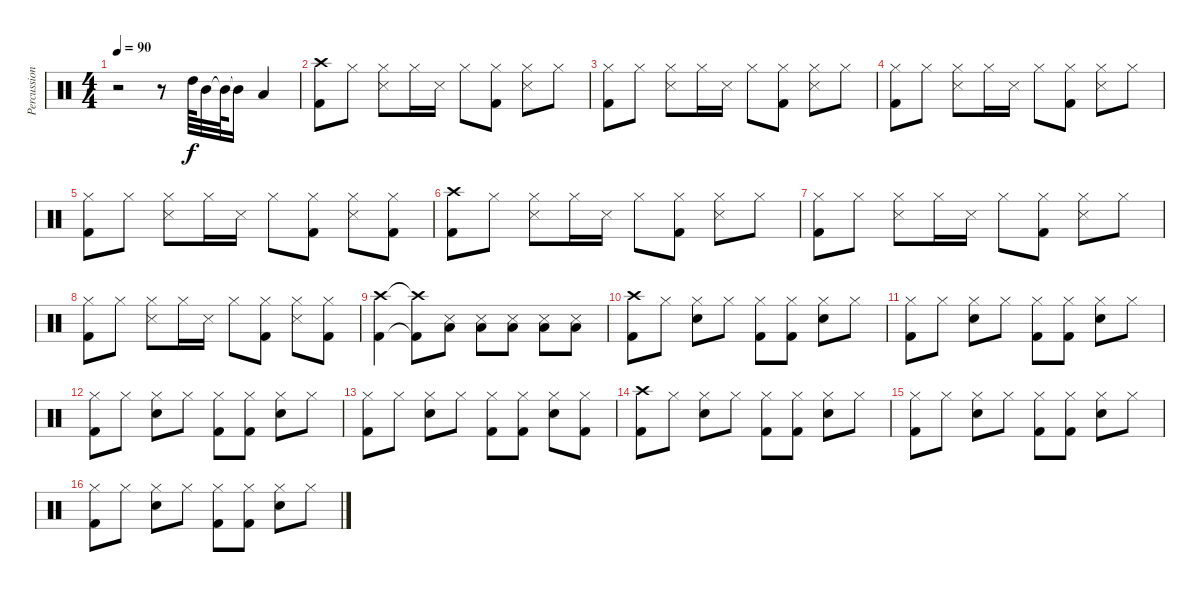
\track ("Percussion" "Percussion") {instrument percussion}
\staff {score}
\articulation defaults
\ts (4 4)
\tempo 90
\clef neutral
\ks c
r.2{dy f} r.8 "High Tom (hit)".64 "Mid Tom (hit)".32 "Mid Tom (hit)"{t}.64 "Mid Tom (hit)"{t}.16 "Low Floor Tom (hit)".4 |
("Crash high (hit)" "Kick (hit) 2").8 "Hi-Hat (closed)".8 ("Hi-Hat (closed)" "Snare (side stick) 3").8 "Hi-Hat (closed)".16 "Snare (side stick) 3".16 "Hi-Hat (closed)".8 ("Hi-Hat (closed)" "Kick (hit) 2").8 ("Hi-Hat (closed)" "Snare (side stick) 3").8 "Hi-Hat (closed)".8 |
("Hi-Hat (closed)" "Kick (hit) 2").8 "Hi-Hat (closed)".8 ("Hi-Hat (closed)" "Snare (side stick) 3").8 "Hi-Hat (closed)".16 "Snare (side stick) 3".16 "Hi-Hat (closed)".8 ("Hi-Hat (closed)" "Kick (hit) 2").8 ("Hi-Hat (closed)" "Snare (side stick) 3").8 "Hi-Hat (closed)".8 |
("Hi-Hat (closed)" "Kick (hit) 2").8 "Hi-Hat (closed)".8 ("Hi-Hat (closed)" "Snare (side stick) 3").8 "Hi-Hat (closed)".16 "Snare (side stick) 3".16 "Hi-Hat (closed)".8 ("Hi-Hat (closed)" "Kick (hit) 2").8 ("Hi-Hat (closed)" "Snare (side stick) 3").8 "Hi-Hat (closed)".8 |
("Hi-Hat (closed)" "Kick (hit) 2").8 "Hi-Hat (closed)".8 ("Hi-Hat (closed)" "Snare (side stick) 3").8 "Hi-Hat (closed)".16 "Snare (side stick) 3".16 "Hi-Hat (closed)".8 ("Hi-Hat (closed)" "Kick (hit) 2").8 ("Hi-Hat (closed)" "Snare (side stick) 3").8 ("Hi-Hat (closed)" "Kick (hit) 2").8 |
("Crash high (hit)" "Kick (hit) 2").8 "Hi-Hat (closed)".8 ("Hi-Hat (closed)" "Snare (side stick) 3").8 "Hi-Hat (closed)".16 "Snare (side stick) 3".16 "Hi-Hat (closed)".8 ("Hi-Hat (closed)" "Kick (hit) 2").8 ("Hi-Hat (closed)" "Snare (side stick) 3").8 "Hi-Hat (closed)".8 |
("Hi-Hat (closed)" "Kick (hit) 2").8 "Hi-Hat (closed)".8 ("Hi-Hat (closed)" "Snare (side stick) 3").8 "Hi-Hat (closed)".16 "Snare (side stick) 3".16 "Hi-Hat (closed)".8 ("Hi-Hat (closed)" "Kick (hit) 2").8 ("Hi-Hat (closed)" "Snare (side stick) 3").8 "Hi-Hat (closed)".8 |
("Hi-Hat (closed)" "Kick (hit) 2").8 "Hi-Hat (closed)".8 ("Hi-Hat (closed)" "Snare (side stick) 3").8 "Hi-Hat (closed)".16 "Snare (side stick) 3".16 "Hi-Hat (closed)".8 ("Hi-Hat (closed)" "Kick (hit) 2").8 ("Hi-Hat (closed)" "Snare (side stick) 3").8 ("Hi-Hat (closed)" "Kick (hit) 2").8 |
("Crash high (hit)" "Kick (hit) 2").4 ("Crash high (hit)"{t} "Kick (hit) 2"{t}).8 ("Snare (side stick) 3" "Low Floor Tom (hit)").8 ("Snare (side stick) 3" "Low Floor Tom (hit)").8 ("Snare (side stick) 3" "Low Floor Tom (hit)").8 ("Snare (side stick) 3" "Low Floor Tom (hit)").8 ("Snare (side stick) 3" "Low Floor Tom (hit)").8 |
("Crash high (hit)" "Kick (hit) 2").8 "Hi-Hat (closed)".8 ("Hi-Hat (closed)" "Snare (hit) 2").8 "Hi-Hat (closed)".8 ("Hi-Hat (closed)" "Kick (hit) 2").8 ("Hi-Hat (closed)" "Kick (hit) 2").8 ("Hi-Hat (closed)" "Snare (hit) 2").8 "Hi-Hat (closed)".8 |
("Hi-Hat (closed)" "Kick (hit) 2").8 "Hi-Hat (closed)".8 ("Hi-Hat (closed)" "Snare (hit) 2").8 "Hi-Hat (closed)".8 ("Hi-Hat (closed)" "Kick (hit) 2").8 ("Hi-Hat (closed)" "Kick (hit) 2").8 ("Hi-Hat (closed)" "Snare (hit) 2").8 "Hi-Hat (closed)".8 |
("Hi-Hat (closed)" "Kick (hit) 2").8 "Hi-Hat (closed)".8 ("Hi-Hat (closed)" "Snare (hit) 2").8 "Hi-Hat (closed)".8 ("Hi-Hat (closed)" "Kick (hit) 2").8 ("Hi-Hat (closed)" "Kick (hit) 2").8 ("Hi-Hat (closed)" "Snare (hit) 2").8 "Hi-Hat (closed)".8 |
("Hi-Hat (closed)" "Kick (hit) 2").8 "Hi-Hat (closed)".8 ("Hi-Hat (closed)" "Snare (hit) 2").8 "Hi-Hat (closed)".8 ("Hi-Hat (closed)" "Kick (hit) 2").8 ("Hi-Hat (closed)" "Kick (hit) 2").8 ("Hi-Hat (closed)" "Snare (hit) 2").8 ("Hi-Hat (closed)" "Kick (hit) 2").8 |
("Crash high (hit)" "Kick (hit) 2").8 "Hi-Hat (closed)".8 ("Hi-Hat (closed)" "Snare (hit) 2").8 "Hi-Hat (closed)".8 ("Hi-Hat (closed)" "Kick (hit) 2").8 ("Hi-Hat (closed)" "Kick (hit) 2").8 ("Hi-Hat (closed)" "Snare (hit) 2").8 "Hi-Hat (closed)".8 |
("Hi-Hat (closed)" "Kick (hit) 2").8 "Hi-Hat (closed)".8 ("Hi-Hat (closed)" "Snare (hit) 2").8 "Hi-Hat (closed)".8 ("Hi-Hat (closed)" "Kick (hit) 2").8 ("Hi-Hat (closed)" "Kick (hit) 2").8 ("Hi-Hat (closed)" "Snare (hit) 2").8 "Hi-Hat (closed)".8 |
("Hi-Hat (closed)" "Kick (hit) 2").8 "Hi-Hat (closed)".8 ("Hi-Hat (closed)" "Snare (hit) 2").8 "Hi-Hat (closed)".8 ("Hi-Hat (closed)" "Kick (hit) 2").8 ("Hi-Hat (closed)" "Kick (hit) 2").8 ("Hi-Hat (closed)" "Snare (hit) 2").8 "Hi-Hat (closed)".8
